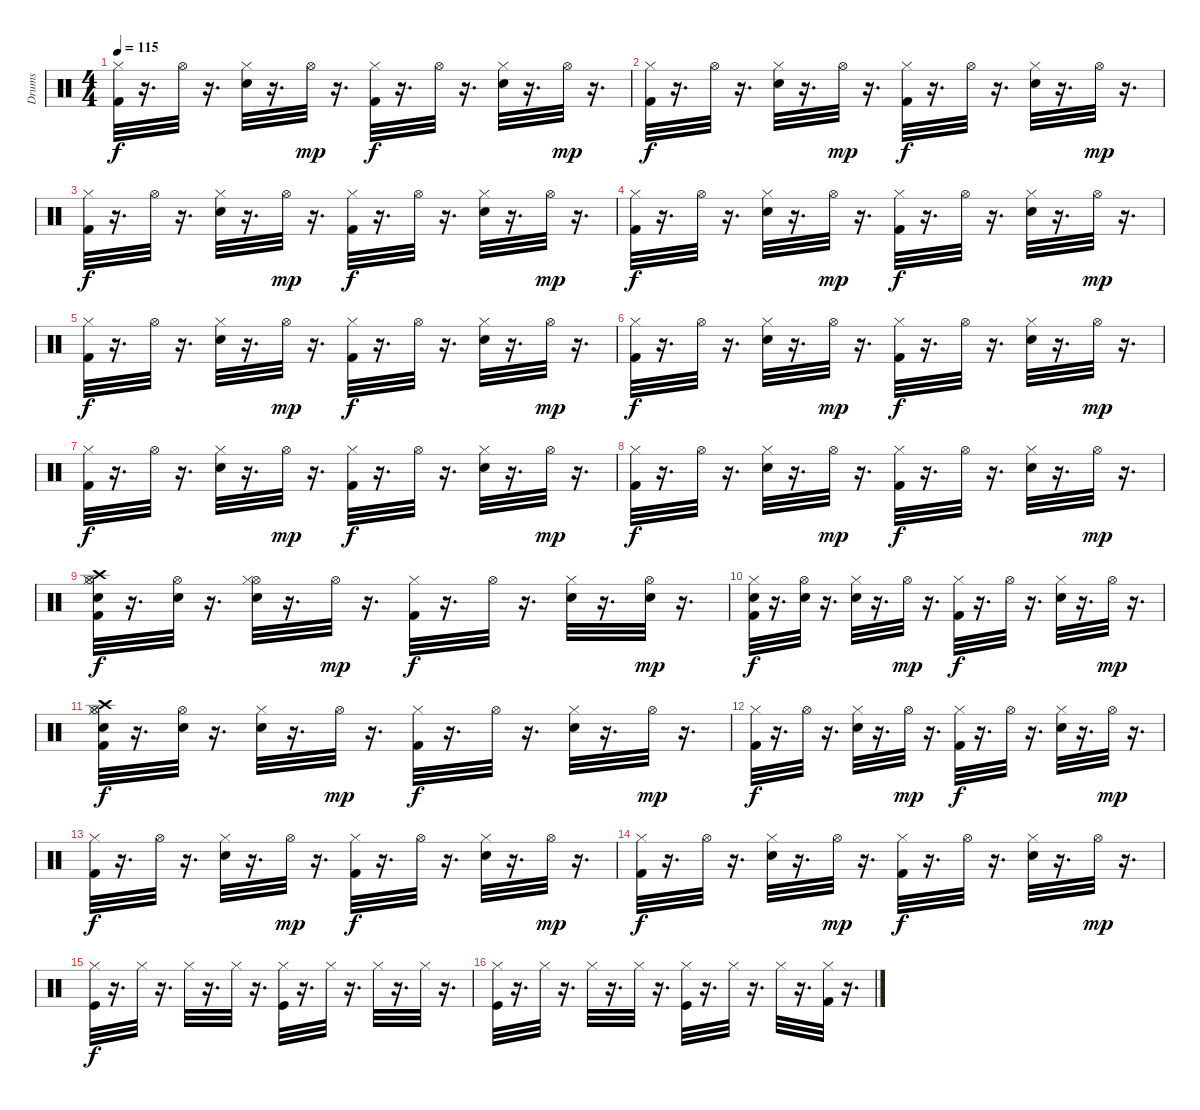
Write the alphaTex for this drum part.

\track ("Drums" "Drums") {instrument percussion}
\staff {score}
\articulation defaults
\ts (4 4)
\tempo 115
\clef neutral
\ks c
("Hi-Hat (closed)" "Kick (hit) 2").32{dy f} r.16{d} "Hi-Hat (open)".32 r.16{d} ("Hi-Hat (closed)" "Snare (hit) 2").32 r.16{d} "Hi-Hat (open)".32{dy mp} r.16{d} ("Kick (hit) 2" "Hi-Hat (closed)").32{dy f} r.16{d} "Hi-Hat (open)".32 r.16{d} ("Hi-Hat (closed)" "Snare (hit) 2").32 r.16{d} "Hi-Hat (open)".32{dy mp} r.16{d} |
("Hi-Hat (closed)" "Kick (hit) 2").32{dy f} r.16{d} "Hi-Hat (open)".32 r.16{d} ("Hi-Hat (closed)" "Snare (hit) 2").32 r.16{d} "Hi-Hat (open)".32{dy mp} r.16{d} ("Kick (hit) 2" "Hi-Hat (closed)").32{dy f} r.16{d} "Hi-Hat (open)".32 r.16{d} ("Hi-Hat (closed)" "Snare (hit) 2").32 r.16{d} "Hi-Hat (open)".32{dy mp} r.16{d} |
("Hi-Hat (closed)" "Kick (hit) 2").32{dy f} r.16{d} "Hi-Hat (open)".32 r.16{d} ("Hi-Hat (closed)" "Snare (hit) 2").32 r.16{d} "Hi-Hat (open)".32{dy mp} r.16{d} ("Kick (hit) 2" "Hi-Hat (closed)").32{dy f} r.16{d} "Hi-Hat (open)".32 r.16{d} ("Hi-Hat (closed)" "Snare (hit) 2").32 r.16{d} "Hi-Hat (open)".32{dy mp} r.16{d} |
("Hi-Hat (closed)" "Kick (hit) 2").32{dy f} r.16{d} "Hi-Hat (open)".32 r.16{d} ("Hi-Hat (closed)" "Snare (hit) 2").32 r.16{d} "Hi-Hat (open)".32{dy mp} r.16{d} ("Kick (hit) 2" "Hi-Hat (closed)").32{dy f} r.16{d} "Hi-Hat (open)".32 r.16{d} ("Hi-Hat (closed)" "Snare (hit) 2").32 r.16{d} "Hi-Hat (open)".32{dy mp} r.16{d} |
("Hi-Hat (closed)" "Kick (hit) 2").32{dy f} r.16{d} "Hi-Hat (open)".32 r.16{d} ("Hi-Hat (closed)" "Snare (hit) 2").32 r.16{d} "Hi-Hat (open)".32{dy mp} r.16{d} ("Kick (hit) 2" "Hi-Hat (closed)").32{dy f} r.16{d} "Hi-Hat (open)".32 r.16{d} ("Hi-Hat (closed)" "Snare (hit) 2").32 r.16{d} "Hi-Hat (open)".32{dy mp} r.16{d} |
("Hi-Hat (closed)" "Kick (hit) 2").32{dy f} r.16{d} "Hi-Hat (open)".32 r.16{d} ("Hi-Hat (closed)" "Snare (hit) 2").32 r.16{d} "Hi-Hat (open)".32{dy mp} r.16{d} ("Kick (hit) 2" "Hi-Hat (closed)").32{dy f} r.16{d} "Hi-Hat (open)".32 r.16{d} ("Hi-Hat (closed)" "Snare (hit) 2").32 r.16{d} "Hi-Hat (open)".32{dy mp} r.16{d} |
("Hi-Hat (closed)" "Kick (hit) 2").32{dy f} r.16{d} "Hi-Hat (open)".32 r.16{d} ("Hi-Hat (closed)" "Snare (hit) 2").32 r.16{d} "Hi-Hat (open)".32{dy mp} r.16{d} ("Kick (hit) 2" "Hi-Hat (closed)").32{dy f} r.16{d} "Hi-Hat (open)".32 r.16{d} ("Hi-Hat (closed)" "Snare (hit) 2").32 r.16{d} "Hi-Hat (open)".32{dy mp} r.16{d} |
("Hi-Hat (closed)" "Kick (hit) 2").32{dy f} r.16{d} "Hi-Hat (open)".32 r.16{d} ("Hi-Hat (closed)" "Snare (hit) 2").32 r.16{d} "Hi-Hat (open)".32{dy mp} r.16{d} ("Kick (hit) 2" "Hi-Hat (closed)").32{dy f} r.16{d} "Hi-Hat (open)".32 r.16{d} ("Hi-Hat (closed)" "Snare (hit) 2").32 r.16{d} "Hi-Hat (open)".32{dy mp} r.16{d} |
("Crash high (hit)" "Hi-Hat (open)" "Snare (hit) 2" "Hi-Hat (closed)" "Kick (hit) 2").32{dy f} r.16{d} ("Snare (hit) 2" "Hi-Hat (open)").32 r.16{d} ("Hi-Hat (open)" "Hi-Hat (closed)" "Snare (hit) 2").32 r.16{d} "Hi-Hat (open)".32{dy mp} r.16{d} ("Kick (hit) 2" "Hi-Hat (closed)").32{dy f} r.16{d} "Hi-Hat (open)".32 r.16{d} ("Hi-Hat (closed)" "Snare (hit) 2").32 r.16{d} ("Snare (hit) 2" "Hi-Hat (open)").32{dy mp} r.16{d} |
("Snare (hit) 2" "Hi-Hat (closed)" "Kick (hit) 2").32{dy f} r.16{d} ("Snare (hit) 2" "Hi-Hat (open)").32 r.16{d} ("Hi-Hat (closed)" "Snare (hit) 2").32 r.16{d} "Hi-Hat (open)".32{dy mp} r.16{d} ("Kick (hit) 2" "Hi-Hat (closed)").32{dy f} r.16{d} "Hi-Hat (open)".32 r.16{d} ("Hi-Hat (closed)" "Snare (hit) 2").32 r.16{d} "Hi-Hat (open)".32{dy mp} r.16{d} |
("Crash high (hit)" "Hi-Hat (open)" "Snare (hit) 2" "Hi-Hat (closed)" "Kick (hit) 2").32{dy f} r.16{d} ("Snare (hit) 2" "Hi-Hat (open)").32 r.16{d} ("Hi-Hat (closed)" "Snare (hit) 2").32 r.16{d} "Hi-Hat (open)".32{dy mp} r.16{d} ("Kick (hit) 2" "Hi-Hat (closed)").32{dy f} r.16{d} "Hi-Hat (open)".32 r.16{d} ("Hi-Hat (closed)" "Snare (hit) 2").32 r.16{d} "Hi-Hat (open)".32{dy mp} r.16{d} |
("Hi-Hat (closed)" "Kick (hit) 2").32{dy f} r.16{d} "Hi-Hat (open)".32 r.16{d} ("Hi-Hat (closed)" "Snare (hit) 2").32 r.16{d} "Hi-Hat (open)".32{dy mp} r.16{d} ("Kick (hit) 2" "Hi-Hat (closed)").32{dy f} r.16{d} "Hi-Hat (open)".32 r.16{d} ("Hi-Hat (closed)" "Snare (hit) 2").32 r.16{d} "Hi-Hat (open)".32{dy mp} r.16{d} |
("Hi-Hat (closed)" "Kick (hit) 2").32{dy f} r.16{d} "Hi-Hat (open)".32 r.16{d} ("Hi-Hat (closed)" "Snare (hit) 2").32 r.16{d} "Hi-Hat (open)".32{dy mp} r.16{d} ("Kick (hit) 2" "Hi-Hat (closed)").32{dy f} r.16{d} "Hi-Hat (open)".32 r.16{d} ("Hi-Hat (closed)" "Snare (hit) 2").32 r.16{d} "Hi-Hat (open)".32{dy mp} r.16{d} |
("Hi-Hat (closed)" "Kick (hit) 2").32{dy f} r.16{d} "Hi-Hat (open)".32 r.16{d} ("Hi-Hat (closed)" "Snare (hit) 2").32 r.16{d} "Hi-Hat (open)".32{dy mp} r.16{d} ("Kick (hit) 2" "Hi-Hat (closed)").32{dy f} r.16{d} "Hi-Hat (open)".32 r.16{d} ("Hi-Hat (closed)" "Snare (hit) 2").32 r.16{d} "Hi-Hat (open)".32{dy mp} r.16{d} |
("Hi-Hat (closed)" "Kick (hit)").32{dy f} r.16{d} "Hi-Hat (closed)".32 r.16{d} "Hi-Hat (closed)".32 r.16{d} "Hi-Hat (closed)".32 r.16{d} ("Hi-Hat (closed)" "Kick (hit)").32 r.16{d} "Hi-Hat (closed)".32 r.16{d} "Hi-Hat (closed)".32 r.16{d} "Hi-Hat (closed)".32 r.16{d} |
("Hi-Hat (closed)" "Kick (hit)").32 r.16{d} "Hi-Hat (closed)".32 r.16{d} "Hi-Hat (closed)".32 r.16{d} "Hi-Hat (closed)".32 r.16{d} ("Hi-Hat (closed)" "Kick (hit)").32 r.16{d} "Hi-Hat (closed)".32 r.16{d} "Hi-Hat (closed)".32 r.16{d} ("Kick (hit) 2" "Hi-Hat (closed)").32 r.16{d}
